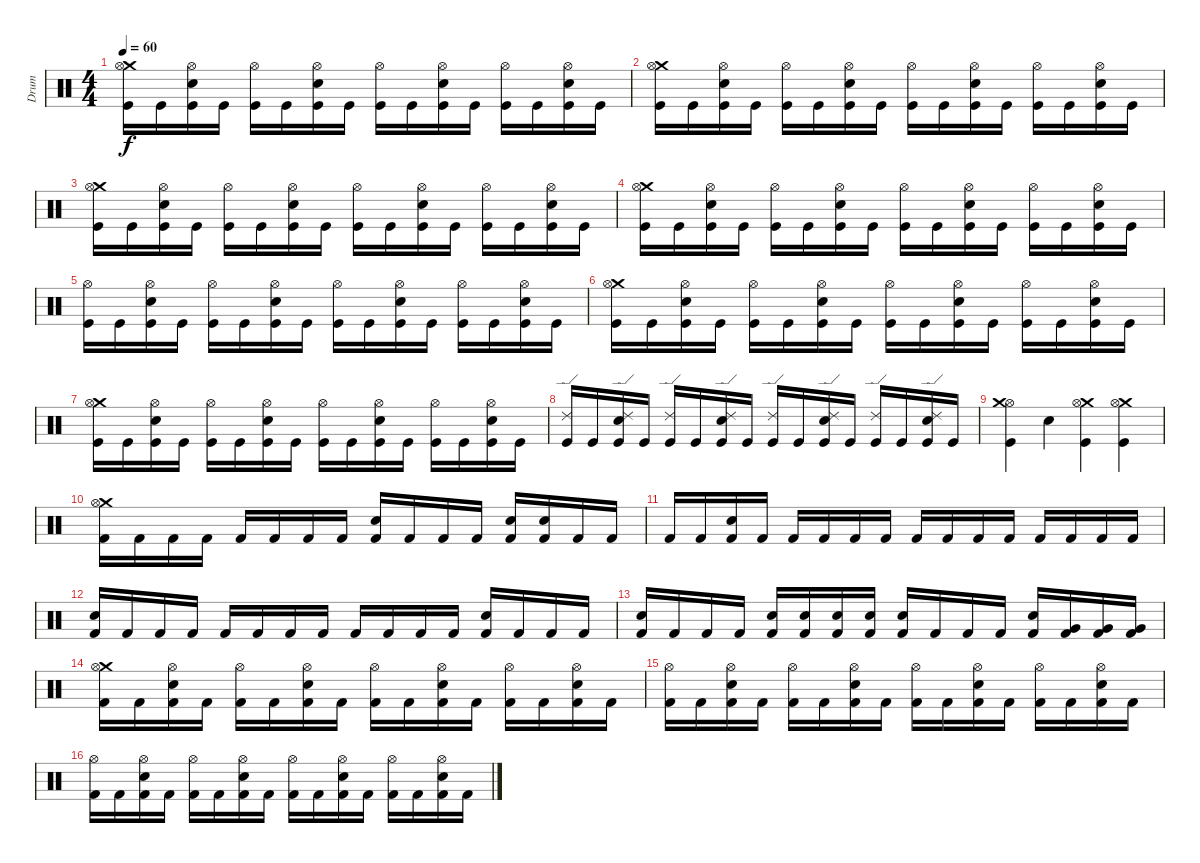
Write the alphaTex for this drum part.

\track ("Drum" "Drum") {instrument percussion}
\staff {score}
\articulation defaults
\ts (4 4)
\tempo 60
\clef neutral
\ks c
("Crash medium (hit)" "Hi-Hat (open)" "Kick (hit)").16{dy f} "Kick (hit)".16 ("Electric Snare (hit)" "Hi-Hat (open)" "Kick (hit)").16 "Kick (hit)".16 ("Hi-Hat (open)" "Kick (hit)").16 "Kick (hit)".16 ("Electric Snare (hit)" "Hi-Hat (open)" "Kick (hit)").16 "Kick (hit)".16 ("Hi-Hat (open)" "Kick (hit)").16 "Kick (hit)".16 ("Electric Snare (hit)" "Hi-Hat (open)" "Kick (hit)").16 "Kick (hit)".16 ("Hi-Hat (open)" "Kick (hit)").16 "Kick (hit)".16 ("Electric Snare (hit)" "Hi-Hat (open)" "Kick (hit)").16 "Kick (hit)".16 |
("Crash medium (hit)" "Hi-Hat (open)" "Kick (hit)").16 "Kick (hit)".16 ("Electric Snare (hit)" "Hi-Hat (open)" "Kick (hit)").16 "Kick (hit)".16 ("Hi-Hat (open)" "Kick (hit)").16 "Kick (hit)".16 ("Electric Snare (hit)" "Hi-Hat (open)" "Kick (hit)").16 "Kick (hit)".16 ("Hi-Hat (open)" "Kick (hit)").16 "Kick (hit)".16 ("Electric Snare (hit)" "Hi-Hat (open)" "Kick (hit)").16 "Kick (hit)".16 ("Hi-Hat (open)" "Kick (hit)").16 "Kick (hit)".16 ("Electric Snare (hit)" "Hi-Hat (open)" "Kick (hit)").16 "Kick (hit)".16 |
("Crash medium (hit)" "Hi-Hat (open)" "Kick (hit)").16 "Kick (hit)".16 ("Electric Snare (hit)" "Hi-Hat (open)" "Kick (hit)").16 "Kick (hit)".16 ("Hi-Hat (open)" "Kick (hit)").16 "Kick (hit)".16 ("Electric Snare (hit)" "Hi-Hat (open)" "Kick (hit)").16 "Kick (hit)".16 ("Hi-Hat (open)" "Kick (hit)").16 "Kick (hit)".16 ("Electric Snare (hit)" "Hi-Hat (open)" "Kick (hit)").16 "Kick (hit)".16 ("Hi-Hat (open)" "Kick (hit)").16 "Kick (hit)".16 ("Electric Snare (hit)" "Hi-Hat (open)" "Kick (hit)").16 "Kick (hit)".16 |
("Crash medium (hit)" "Hi-Hat (open)" "Kick (hit)").16 "Kick (hit)".16 ("Electric Snare (hit)" "Hi-Hat (open)" "Kick (hit)").16 "Kick (hit)".16 ("Hi-Hat (open)" "Kick (hit)").16 "Kick (hit)".16 ("Electric Snare (hit)" "Hi-Hat (open)" "Kick (hit)").16 "Kick (hit)".16 ("Hi-Hat (open)" "Kick (hit)").16 "Kick (hit)".16 ("Electric Snare (hit)" "Hi-Hat (open)" "Kick (hit)").16 "Kick (hit)".16 ("Hi-Hat (open)" "Kick (hit)").16 "Kick (hit)".16 ("Electric Snare (hit)" "Hi-Hat (open)" "Kick (hit)").16 "Kick (hit)".16 |
("Hi-Hat (open)" "Kick (hit)").16 "Kick (hit)".16 ("Electric Snare (hit)" "Hi-Hat (open)" "Kick (hit)").16 "Kick (hit)".16 ("Hi-Hat (open)" "Kick (hit)").16 "Kick (hit)".16 ("Electric Snare (hit)" "Hi-Hat (open)" "Kick (hit)").16 "Kick (hit)".16 ("Hi-Hat (open)" "Kick (hit)").16 "Kick (hit)".16 ("Electric Snare (hit)" "Hi-Hat (open)" "Kick (hit)").16 "Kick (hit)".16 ("Hi-Hat (open)" "Kick (hit)").16 "Kick (hit)".16 ("Electric Snare (hit)" "Hi-Hat (open)" "Kick (hit)").16 "Kick (hit)".16 |
("Crash medium (hit)" "Hi-Hat (open)" "Kick (hit)").16 "Kick (hit)".16 ("Electric Snare (hit)" "Hi-Hat (open)" "Kick (hit)").16 "Kick (hit)".16 ("Hi-Hat (open)" "Kick (hit)").16 "Kick (hit)".16 ("Electric Snare (hit)" "Hi-Hat (open)" "Kick (hit)").16 "Kick (hit)".16 ("Hi-Hat (open)" "Kick (hit)").16 "Kick (hit)".16 ("Electric Snare (hit)" "Hi-Hat (open)" "Kick (hit)").16 "Kick (hit)".16 ("Hi-Hat (open)" "Kick (hit)").16 "Kick (hit)".16 ("Electric Snare (hit)" "Hi-Hat (open)" "Kick (hit)").16 "Kick (hit)".16 |
("Crash medium (hit)" "Hi-Hat (open)" "Kick (hit)").16 "Kick (hit)".16 ("Electric Snare (hit)" "Hi-Hat (open)" "Kick (hit)").16 "Kick (hit)".16 ("Hi-Hat (open)" "Kick (hit)").16 "Kick (hit)".16 ("Electric Snare (hit)" "Hi-Hat (open)" "Kick (hit)").16 "Kick (hit)".16 ("Hi-Hat (open)" "Kick (hit)").16 "Kick (hit)".16 ("Electric Snare (hit)" "Hi-Hat (open)" "Kick (hit)").16 "Kick (hit)".16 ("Hi-Hat (open)" "Kick (hit)").16 "Kick (hit)".16 ("Electric Snare (hit)" "Hi-Hat (open)" "Kick (hit)").16 "Kick (hit)".16 |
("Kick (hit)" "Ride (edge) 2").16 "Kick (hit)".16 ("Electric Snare (hit)" "Kick (hit)" "Ride (edge) 2").16 "Kick (hit)".16 ("Kick (hit)" "Ride (edge) 2").16 "Kick (hit)".16 ("Electric Snare (hit)" "Kick (hit)" "Ride (edge) 2").16 "Kick (hit)".16 ("Kick (hit)" "Ride (edge) 2").16 "Kick (hit)".16 ("Electric Snare (hit)" "Kick (hit)" "Ride (edge) 2").16 "Kick (hit)".16 ("Kick (hit)" "Ride (edge) 2").16 "Kick (hit)".16 ("Electric Snare (hit)" "Kick (hit)" "Ride (edge) 2").16 "Kick (hit)".16 |
("Kick (hit)" "Hi-Hat (open)" "Crash medium (hit)").4 "Electric Snare (hit)".4 ("Crash medium (hit)" "Hi-Hat (open)" "Kick (hit)").4 ("Crash medium (hit)" "Hi-Hat (open)" "Kick (hit)").4 |
("Crash medium (hit)" "Hi-Hat (open)" "Kick (hit) 2").16 "Kick (hit) 2".16 "Kick (hit) 2".16 "Kick (hit) 2".16 "Kick (hit) 2".16 "Kick (hit) 2".16 "Kick (hit) 2".16 "Kick (hit) 2".16 ("Electric Snare (hit)" "Kick (hit) 2").16 "Kick (hit) 2".16 "Kick (hit) 2".16 "Kick (hit) 2".16 ("Electric Snare (hit)" "Kick (hit) 2").16 ("Electric Snare (hit)" "Kick (hit) 2").16 "Kick (hit) 2".16 "Kick (hit) 2".16 |
"Kick (hit) 2".16 "Kick (hit) 2".16 ("Electric Snare (hit)" "Kick (hit) 2").16 "Kick (hit) 2".16 "Kick (hit) 2".16 "Kick (hit) 2".16 "Kick (hit) 2".16 "Kick (hit) 2".16 "Kick (hit) 2".16 "Kick (hit) 2".16 "Kick (hit) 2".16 "Kick (hit) 2".16 "Kick (hit) 2".16 "Kick (hit) 2".16 "Kick (hit) 2".16 "Kick (hit) 2".16 |
("Electric Snare (hit)" "Kick (hit) 2").16 "Kick (hit) 2".16 "Kick (hit) 2".16 "Kick (hit) 2".16 "Kick (hit) 2".16 "Kick (hit) 2".16 "Kick (hit) 2".16 "Kick (hit) 2".16 "Kick (hit) 2".16 "Kick (hit) 2".16 "Kick (hit) 2".16 "Kick (hit) 2".16 ("Electric Snare (hit)" "Kick (hit) 2").16 "Kick (hit) 2".16 "Kick (hit) 2".16 "Kick (hit) 2".16 |
("Electric Snare (hit)" "Kick (hit) 2").16 "Kick (hit) 2".16 "Kick (hit) 2".16 "Kick (hit) 2".16 ("Electric Snare (hit)" "Kick (hit) 2").16 ("Electric Snare (hit)" "Kick (hit) 2").16 ("Electric Snare (hit)" "Kick (hit) 2").16 ("Electric Snare (hit)" "Kick (hit) 2").16 ("Electric Snare (hit)" "Kick (hit) 2").16 "Kick (hit) 2".16 "Kick (hit) 2".16 "Kick (hit) 2".16 ("Electric Snare (hit)" "Kick (hit) 2").16 ("Very Low Tom (hit)" "Kick (hit) 2").16 ("Very Low Tom (hit)" "Kick (hit) 2").16 ("Very Low Tom (hit)" "Kick (hit) 2").16 |
("Crash medium (hit)" "Hi-Hat (open)" "Kick (hit) 2").16 "Kick (hit) 2".16 ("Electric Snare (hit)" "Hi-Hat (open)" "Kick (hit) 2").16 "Kick (hit) 2".16 ("Hi-Hat (open)" "Kick (hit) 2").16 "Kick (hit) 2".16 ("Electric Snare (hit)" "Hi-Hat (open)" "Kick (hit) 2").16 "Kick (hit) 2".16 ("Hi-Hat (open)" "Kick (hit) 2").16 "Kick (hit) 2".16 ("Electric Snare (hit)" "Hi-Hat (open)" "Kick (hit) 2").16 "Kick (hit) 2".16 ("Hi-Hat (open)" "Kick (hit) 2").16 "Kick (hit) 2".16 ("Electric Snare (hit)" "Hi-Hat (open)" "Kick (hit) 2").16 "Kick (hit) 2".16 |
("Hi-Hat (open)" "Kick (hit) 2").16 "Kick (hit) 2".16 ("Electric Snare (hit)" "Hi-Hat (open)" "Kick (hit) 2").16 "Kick (hit) 2".16 ("Hi-Hat (open)" "Kick (hit) 2").16 "Kick (hit) 2".16 ("Electric Snare (hit)" "Hi-Hat (open)" "Kick (hit) 2").16 "Kick (hit) 2".16 ("Hi-Hat (open)" "Kick (hit) 2").16 "Kick (hit) 2".16 ("Electric Snare (hit)" "Hi-Hat (open)" "Kick (hit) 2").16 "Kick (hit) 2".16 ("Hi-Hat (open)" "Kick (hit) 2").16 "Kick (hit) 2".16 ("Electric Snare (hit)" "Hi-Hat (open)" "Kick (hit) 2").16 "Kick (hit) 2".16 |
("Hi-Hat (open)" "Kick (hit) 2").16 "Kick (hit) 2".16 ("Electric Snare (hit)" "Hi-Hat (open)" "Kick (hit) 2").16 "Kick (hit) 2".16 ("Hi-Hat (open)" "Kick (hit) 2").16 "Kick (hit) 2".16 ("Electric Snare (hit)" "Hi-Hat (open)" "Kick (hit) 2").16 "Kick (hit) 2".16 ("Hi-Hat (open)" "Kick (hit) 2").16 "Kick (hit) 2".16 ("Electric Snare (hit)" "Hi-Hat (open)" "Kick (hit) 2").16 "Kick (hit) 2".16 ("Hi-Hat (open)" "Kick (hit) 2").16 "Kick (hit) 2".16 ("Electric Snare (hit)" "Hi-Hat (open)" "Kick (hit) 2").16 "Kick (hit) 2".16
